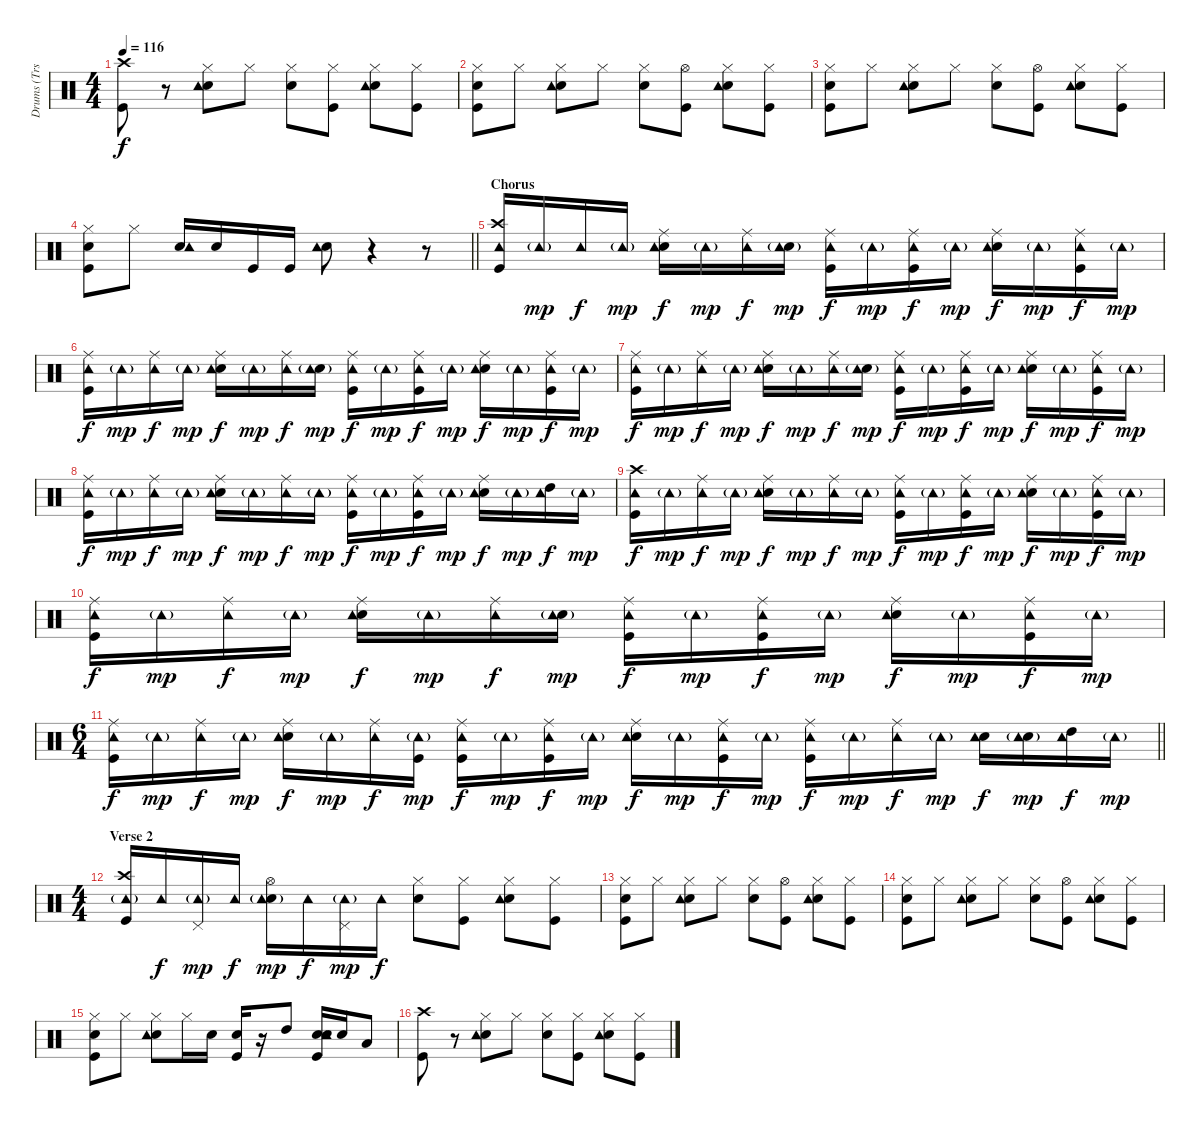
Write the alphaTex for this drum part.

\track ("Drums (Trs. 7-8A, 10A/7-8B, 10B, 12-13B)" "Drums (Trs") {mute instrument percussion}
\staff {score}
\articulation defaults
\ts (4 4)
\tempo 116
\clef neutral
\ks c
("Kick (hit)" "Crash high (hit)").8{dy f} r.8 ("Electric Snare (hit)" "Hi-Hat (closed)" "Tambourine (hit)").8 "Hi-Hat (closed)".8 ("Hi-Hat (closed)" "Electric Snare (hit)").8 ("Kick (hit)" "Hi-Hat (closed)").8 ("Hi-Hat (closed)" "Electric Snare (hit)" "Tambourine (hit)").8 ("Kick (hit)" "Hi-Hat (closed)").8 |
("Electric Snare (hit)" "Hi-Hat (closed)" "Kick (hit)").8 "Hi-Hat (closed)".8 ("Electric Snare (hit)" "Hi-Hat (closed)" "Tambourine (hit)").8 "Hi-Hat (closed)".8 ("Electric Snare (hit)" "Hi-Hat (closed)").8 ("Hi-Hat (open)" "Kick (hit)").8 ("Hi-Hat (closed)" "Electric Snare (hit)" "Tambourine (hit)").8 ("Kick (hit)" "Hi-Hat (closed)").8 |
("Electric Snare (hit)" "Hi-Hat (closed)" "Kick (hit)").8 "Hi-Hat (closed)".8 ("Electric Snare (hit)" "Hi-Hat (closed)" "Tambourine (hit)").8 "Hi-Hat (closed)".8 ("Hi-Hat (closed)" "Electric Snare (hit)").8 ("Kick (hit)" "Hi-Hat (open)").8 ("Electric Snare (hit)" "Hi-Hat (closed)" "Tambourine (hit)").8 ("Kick (hit)" "Hi-Hat (closed)").8 |
\barLineRight lightlight
("Kick (hit)" "Electric Snare (hit)" "Hi-Hat (closed)").8 "Hi-Hat (closed)".8 ("Electric Snare (hit)" "Tambourine (hit)").16 "Electric Snare (hit)".16 "Kick (hit)".16 "Kick (hit)".16 ("Electric Snare (hit)" "Tambourine (hit)").8 r.4 r.8 |
\section ("" "Chorus")
("Crash high (hit)" "Kick (hit)" "Tambourine (hit)").16 "Tambourine (hit)"{g}.16{dy mp} "Tambourine (hit)".16{dy f} "Tambourine (hit)"{g}.16{dy mp} ("Electric Snare (hit)" "Ride (middle)" "Tambourine (hit)").16{dy f} "Tambourine (hit)"{g}.16{dy mp} ("Ride (middle)" "Tambourine (hit)").16{dy f} ("Electric Snare (hit)" "Tambourine (hit)"{g}).16{dy mp} ("Ride (middle)" "Kick (hit)" "Tambourine (hit)").16{dy f} "Tambourine (hit)"{g}.16{dy mp} ("Ride (middle)" "Kick (hit)" "Tambourine (hit)").16{dy f} "Tambourine (hit)"{g}.16{dy mp} ("Ride (middle)" "Electric Snare (hit)" "Tambourine (hit)").16{dy f} "Tambourine (hit)"{g}.16{dy mp} ("Ride (middle)" "Kick (hit)" "Tambourine (hit)").16{dy f} "Tambourine (hit)"{g}.16{dy mp} |
("Ride (middle)" "Kick (hit)" "Tambourine (hit)").16{dy f} "Tambourine (hit)"{g}.16{dy mp} ("Ride (middle)" "Tambourine (hit)").16{dy f} "Tambourine (hit)"{g}.16{dy mp} ("Electric Snare (hit)" "Ride (middle)" "Tambourine (hit)").16{dy f} "Tambourine (hit)"{g}.16{dy mp} ("Ride (middle)" "Tambourine (hit)").16{dy f} ("Electric Snare (hit)" "Tambourine (hit)"{g}).16{dy mp} ("Ride (middle)" "Kick (hit)" "Tambourine (hit)").16{dy f} "Tambourine (hit)"{g}.16{dy mp} ("Ride (middle)" "Kick (hit)" "Tambourine (hit)").16{dy f} "Tambourine (hit)"{g}.16{dy mp} ("Electric Snare (hit)" "Ride (middle)" "Tambourine (hit)").16{dy f} "Tambourine (hit)"{g}.16{dy mp} ("Kick (hit)" "Ride (middle)" "Tambourine (hit)").16{dy f} "Tambourine (hit)"{g}.16{dy mp} |
("Kick (hit)" "Ride (middle)" "Tambourine (hit)").16{dy f} "Tambourine (hit)"{g}.16{dy mp} ("Ride (middle)" "Tambourine (hit)").16{dy f} "Tambourine (hit)"{g}.16{dy mp} ("Electric Snare (hit)" "Ride (middle)" "Tambourine (hit)").16{dy f} "Tambourine (hit)"{g}.16{dy mp} ("Ride (middle)" "Tambourine (hit)").16{dy f} ("Electric Snare (hit)" "Tambourine (hit)"{g}).16{dy mp} ("Ride (middle)" "Kick (hit)" "Tambourine (hit)").16{dy f} "Tambourine (hit)"{g}.16{dy mp} ("Ride (middle)" "Kick (hit)" "Tambourine (hit)").16{dy f} "Tambourine (hit)"{g}.16{dy mp} ("Electric Snare (hit)" "Ride (middle)" "Tambourine (hit)").16{dy f} "Tambourine (hit)"{g}.16{dy mp} ("Ride (middle)" "Kick (hit)" "Tambourine (hit)").16{dy f} "Tambourine (hit)"{g}.16{dy mp} |
("Kick (hit)" "Ride (middle)" "Tambourine (hit)").16{dy f} "Tambourine (hit)"{g}.16{dy mp} ("Ride (middle)" "Tambourine (hit)").16{dy f} "Tambourine (hit)"{g}.16{dy mp} ("Ride (middle)" "Electric Snare (hit)" "Tambourine (hit)").16{dy f} "Tambourine (hit)"{g}.16{dy mp} ("Ride (middle)" "Tambourine (hit)").16{dy f} "Tambourine (hit)"{g}.16{dy mp} ("Ride (middle)" "Kick (hit)" "Tambourine (hit)").16{dy f} "Tambourine (hit)"{g}.16{dy mp} ("Kick (hit)" "Ride (middle)" "Tambourine (hit)").16{dy f} "Tambourine (hit)"{g}.16{dy mp} ("Ride (middle)" "Electric Snare (hit)" "Tambourine (hit)").16{dy f} "Tambourine (hit)"{g}.16{dy mp} ("High Tom (hit)" "Tambourine (hit)").16{dy f} "Tambourine (hit)"{g}.16{dy mp} |
("Crash high (hit)" "Kick (hit)" "Tambourine (hit)").16{dy f} "Tambourine (hit)"{g}.16{dy mp} ("Ride (middle)" "Tambourine (hit)").16{dy f} "Tambourine (hit)"{g}.16{dy mp} ("Electric Snare (hit)" "Ride (middle)" "Tambourine (hit)").16{dy f} "Tambourine (hit)"{g}.16{dy mp} ("Ride (middle)" "Tambourine (hit)").16{dy f} "Tambourine (hit)"{g}.16{dy mp} ("Ride (middle)" "Kick (hit)" "Tambourine (hit)").16{dy f} "Tambourine (hit)"{g}.16{dy mp} ("Kick (hit)" "Ride (middle)" "Tambourine (hit)").16{dy f} "Tambourine (hit)"{g}.16{dy mp} ("Ride (middle)" "Electric Snare (hit)" "Tambourine (hit)").16{dy f} "Tambourine (hit)"{g}.16{dy mp} ("Kick (hit)" "Ride (middle)" "Tambourine (hit)").16{dy f} "Tambourine (hit)"{g}.16{dy mp} |
("Kick (hit)" "Ride (middle)" "Tambourine (hit)").16{dy f} "Tambourine (hit)"{g}.16{dy mp} ("Ride (middle)" "Tambourine (hit)").16{dy f} "Tambourine (hit)"{g}.16{dy mp} ("Electric Snare (hit)" "Ride (middle)" "Tambourine (hit)").16{dy f} "Tambourine (hit)"{g}.16{dy mp} ("Ride (middle)" "Tambourine (hit)").16{dy f} ("Electric Snare (hit)" "Tambourine (hit)"{g}).16{dy mp} ("Kick (hit)" "Ride (middle)" "Tambourine (hit)").16{dy f} "Tambourine (hit)"{g}.16{dy mp} ("Ride (middle)" "Kick (hit)" "Tambourine (hit)").16{dy f} "Tambourine (hit)"{g}.16{dy mp} ("Electric Snare (hit)" "Ride (middle)" "Tambourine (hit)").16{dy f} "Tambourine (hit)"{g}.16{dy mp} ("Kick (hit)" "Ride (middle)" "Tambourine (hit)").16{dy f} "Tambourine (hit)"{g}.16{dy mp} |
\ts (6 4)
\barLineRight lightlight
("Kick (hit)" "Ride (middle)" "Tambourine (hit)").16{dy f} "Tambourine (hit)"{g}.16{dy mp} ("Ride (middle)" "Tambourine (hit)").16{dy f} "Tambourine (hit)"{g}.16{dy mp} ("Ride (middle)" "Electric Snare (hit)" "Tambourine (hit)").16{dy f} "Tambourine (hit)"{g}.16{dy mp} ("Ride (middle)" "Tambourine (hit)").16{dy f} ("Kick (hit)" "Tambourine (hit)"{g}).16{dy mp} ("Ride (middle)" "Kick (hit)" "Tambourine (hit)").16{dy f} "Tambourine (hit)"{g}.16{dy mp} ("Ride (middle)" "Kick (hit)" "Tambourine (hit)").16{dy f} "Tambourine (hit)"{g}.16{dy mp} ("Electric Snare (hit)" "Ride (middle)" "Tambourine (hit)").16{dy f} "Tambourine (hit)"{g}.16{dy mp} ("Kick (hit)" "Ride (middle)" "Tambourine (hit)").16{dy f} "Tambourine (hit)"{g}.16{dy mp} ("Ride (middle)" "Kick (hit)" "Tambourine (hit)").16{dy f} "Tambourine (hit)"{g}.16{dy mp} ("Ride (middle)" "Tambourine (hit)").16{dy f} "Tambourine (hit)"{g}.16{dy mp} ("Electric Snare (hit)" "Tambourine (hit)").16{dy f} ("Electric Snare (hit)" "Tambourine (hit)"{g}).16{dy mp} ("High Tom (hit)" "Tambourine (hit)").16{dy f} "Tambourine (hit)"{g}.16{dy mp} |
\ts (4 4)
\section ("" "Verse 2")
("Kick (hit)" "Crash high (hit)" "Tambourine (hit)"{g}).16 "Tambourine (hit)".16{dy f} ("Tambourine (hit)"{g} "Pedal Hi-Hat (hit)").16{dy mp} "Tambourine (hit)".16{dy f} ("Electric Snare (hit)" "Hi-Hat (open)" "Tambourine (hit)"{g}).16{dy mp} "Tambourine (hit)".16{dy f} ("Tambourine (hit)"{g} "Pedal Hi-Hat (hit)").16{dy mp} "Tambourine (hit)".16{dy f} ("Hi-Hat (closed)" "Electric Snare (hit)").8 ("Hi-Hat (closed)" "Kick (hit)").8 ("Hi-Hat (closed)" "Electric Snare (hit)" "Tambourine (hit)").8 ("Kick (hit)" "Hi-Hat (closed)").8 |
("Kick (hit)" "Electric Snare (hit)" "Hi-Hat (closed)").8 "Hi-Hat (closed)".8 ("Hi-Hat (closed)" "Electric Snare (hit)" "Tambourine (hit)").8 "Hi-Hat (closed)".8 ("Hi-Hat (closed)" "Electric Snare (hit)").8 ("Hi-Hat (open)" "Kick (hit)").8 ("Hi-Hat (closed)" "Electric Snare (hit)" "Tambourine (hit)").8 ("Kick (hit)" "Hi-Hat (closed)").8 |
("Hi-Hat (closed)" "Kick (hit)" "Electric Snare (hit)").8 "Hi-Hat (closed)".8 ("Hi-Hat (closed)" "Electric Snare (hit)" "Tambourine (hit)").8 "Hi-Hat (closed)".8 ("Electric Snare (hit)" "Hi-Hat (closed)").8 ("Kick (hit)" "Hi-Hat (open)").8 ("Electric Snare (hit)" "Hi-Hat (closed)" "Tambourine (hit)").8 ("Kick (hit)" "Hi-Hat (closed)").8 |
("Kick (hit)" "Hi-Hat (closed)" "Electric Snare (hit)").8 "Hi-Hat (closed)".8 ("Electric Snare (hit)" "Hi-Hat (closed)" "Tambourine (hit)").8 "Hi-Hat (closed)".16 "Electric Snare (hit)".16 ("Kick (hit)" "Electric Snare (hit)").16 r.16 "High Tom (hit)".8 ("Electric Snare (hit)" "Kick (hit)" "Snare (hit) 2" "Tambourine (hit)").16 "Electric Snare (hit)".16 "Low Tom (hit)".8 |
("Crash high (hit)" "Kick (hit)").8 r.8 ("Electric Snare (hit)" "Hi-Hat (closed)" "Tambourine (hit)").8 "Hi-Hat (closed)".8 ("Hi-Hat (closed)" "Electric Snare (hit)").8 ("Hi-Hat (closed)" "Kick (hit)").8 ("Hi-Hat (closed)" "Electric Snare (hit)" "Tambourine (hit)").8 ("Hi-Hat (closed)" "Kick (hit)").8
